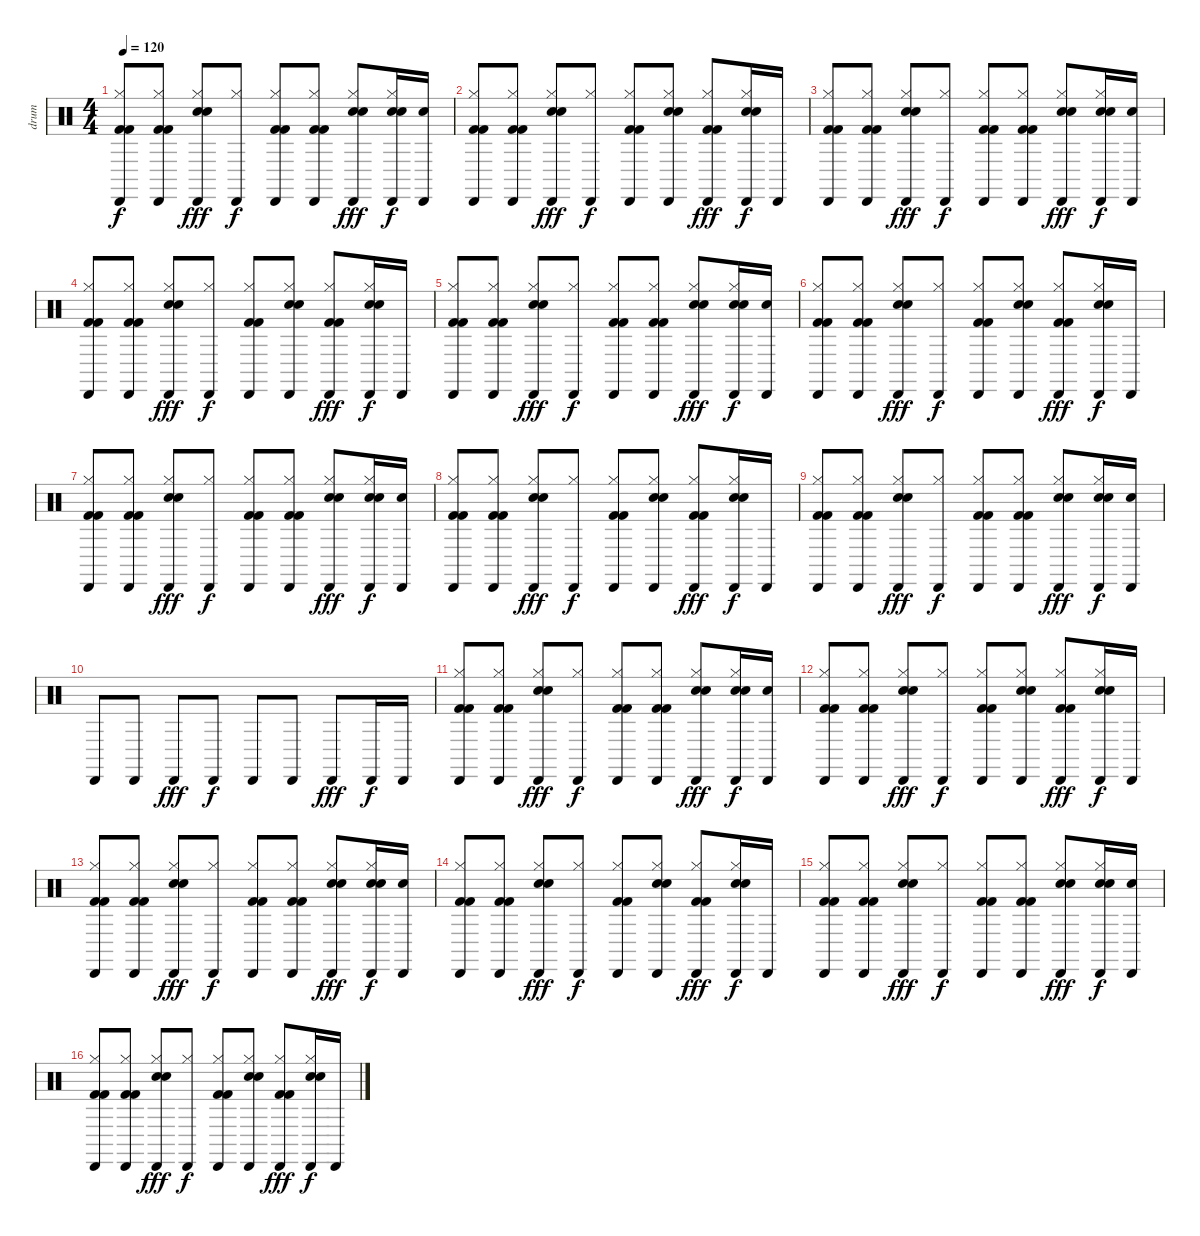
\track ("drum" "drum") {instrument percussion}
\staff {score}
\articulation defaults
\ts (4 4)
\tempo 120
\clef neutral
\ks c
("Cabasa (hit)" "Hi-Hat (closed)" "Kick (hit) 2" "Kick (hit) 2").8{dy f} ("Cabasa (hit)" "Hi-Hat (closed)" "Kick (hit) 2" "Kick (hit) 2").8 ("Cabasa (hit)" "Hi-Hat (closed)" "Snare (hit) 2" "Snare (hit) 2").8{dy fff} ("Cabasa (hit)" "Hi-Hat (closed)").8{dy f} ("Cabasa (hit)" "Hi-Hat (closed)" "Kick (hit) 2" "Kick (hit) 2").8 ("Cabasa (hit)" "Hi-Hat (closed)" "Kick (hit) 2" "Kick (hit) 2").8 ("Cabasa (hit)" "Hi-Hat (closed)" "Snare (hit) 2" "Snare (hit) 2").8{dy fff} ("Cabasa (hit)" "Hi-Hat (closed)" "Snare (hit) 2" "Snare (hit) 2").16{dy f} ("Cabasa (hit)" "Snare (hit) 2").16 |
("Cabasa (hit)" "Hi-Hat (closed)" "Kick (hit) 2" "Kick (hit) 2").8 ("Cabasa (hit)" "Hi-Hat (closed)" "Kick (hit) 2" "Kick (hit) 2").8 ("Cabasa (hit)" "Hi-Hat (closed)" "Snare (hit) 2" "Snare (hit) 2").8{dy fff} ("Cabasa (hit)" "Hi-Hat (closed)").8{dy f} ("Cabasa (hit)" "Hi-Hat (closed)" "Kick (hit) 2" "Kick (hit) 2").8 ("Cabasa (hit)" "Hi-Hat (closed)" "Snare (hit) 2" "Snare (hit) 2").8 ("Cabasa (hit)" "Hi-Hat (closed)" "Kick (hit) 2" "Kick (hit) 2").8{dy fff} ("Cabasa (hit)" "Hi-Hat (closed)" "Snare (hit) 2" "Snare (hit) 2").16{dy f} "Cabasa (hit)".16 |
("Cabasa (hit)" "Hi-Hat (closed)" "Kick (hit) 2" "Kick (hit) 2").8 ("Cabasa (hit)" "Hi-Hat (closed)" "Kick (hit) 2" "Kick (hit) 2").8 ("Cabasa (hit)" "Hi-Hat (closed)" "Snare (hit) 2" "Snare (hit) 2").8{dy fff} ("Cabasa (hit)" "Hi-Hat (closed)").8{dy f} ("Cabasa (hit)" "Hi-Hat (closed)" "Kick (hit) 2" "Kick (hit) 2").8 ("Cabasa (hit)" "Hi-Hat (closed)" "Kick (hit) 2" "Kick (hit) 2").8 ("Cabasa (hit)" "Hi-Hat (closed)" "Snare (hit) 2" "Snare (hit) 2").8{dy fff} ("Cabasa (hit)" "Hi-Hat (closed)" "Snare (hit) 2" "Snare (hit) 2").16{dy f} ("Cabasa (hit)" "Snare (hit) 2").16 |
("Cabasa (hit)" "Hi-Hat (closed)" "Kick (hit) 2" "Kick (hit) 2").8 ("Cabasa (hit)" "Hi-Hat (closed)" "Kick (hit) 2" "Kick (hit) 2").8 ("Cabasa (hit)" "Hi-Hat (closed)" "Snare (hit) 2" "Snare (hit) 2").8{dy fff} ("Cabasa (hit)" "Hi-Hat (closed)").8{dy f} ("Cabasa (hit)" "Hi-Hat (closed)" "Kick (hit) 2" "Kick (hit) 2").8 ("Cabasa (hit)" "Hi-Hat (closed)" "Snare (hit) 2" "Snare (hit) 2").8 ("Cabasa (hit)" "Hi-Hat (closed)" "Kick (hit) 2" "Kick (hit) 2").8{dy fff} ("Cabasa (hit)" "Hi-Hat (closed)" "Snare (hit) 2" "Snare (hit) 2").16{dy f} "Cabasa (hit)".16 |
("Cabasa (hit)" "Hi-Hat (closed)" "Kick (hit) 2" "Kick (hit) 2").8 ("Cabasa (hit)" "Hi-Hat (closed)" "Kick (hit) 2" "Kick (hit) 2").8 ("Cabasa (hit)" "Hi-Hat (closed)" "Snare (hit) 2" "Snare (hit) 2").8{dy fff} ("Cabasa (hit)" "Hi-Hat (closed)").8{dy f} ("Cabasa (hit)" "Hi-Hat (closed)" "Kick (hit) 2" "Kick (hit) 2").8 ("Cabasa (hit)" "Hi-Hat (closed)" "Kick (hit) 2" "Kick (hit) 2").8 ("Cabasa (hit)" "Hi-Hat (closed)" "Snare (hit) 2" "Snare (hit) 2").8{dy fff} ("Cabasa (hit)" "Hi-Hat (closed)" "Snare (hit) 2" "Snare (hit) 2").16{dy f} ("Cabasa (hit)" "Snare (hit) 2").16 |
("Cabasa (hit)" "Hi-Hat (closed)" "Kick (hit) 2" "Kick (hit) 2").8 ("Cabasa (hit)" "Hi-Hat (closed)" "Kick (hit) 2" "Kick (hit) 2").8 ("Cabasa (hit)" "Hi-Hat (closed)" "Snare (hit) 2" "Snare (hit) 2").8{dy fff} ("Cabasa (hit)" "Hi-Hat (closed)").8{dy f} ("Cabasa (hit)" "Hi-Hat (closed)" "Kick (hit) 2" "Kick (hit) 2").8 ("Cabasa (hit)" "Hi-Hat (closed)" "Snare (hit) 2" "Snare (hit) 2").8 ("Cabasa (hit)" "Hi-Hat (closed)" "Kick (hit) 2" "Kick (hit) 2").8{dy fff} ("Cabasa (hit)" "Hi-Hat (closed)" "Snare (hit) 2" "Snare (hit) 2").16{dy f} "Cabasa (hit)".16 |
("Cabasa (hit)" "Hi-Hat (closed)" "Kick (hit) 2" "Kick (hit) 2").8 ("Cabasa (hit)" "Hi-Hat (closed)" "Kick (hit) 2" "Kick (hit) 2").8 ("Cabasa (hit)" "Hi-Hat (closed)" "Snare (hit) 2" "Snare (hit) 2").8{dy fff} ("Cabasa (hit)" "Hi-Hat (closed)").8{dy f} ("Cabasa (hit)" "Hi-Hat (closed)" "Kick (hit) 2" "Kick (hit) 2").8 ("Cabasa (hit)" "Hi-Hat (closed)" "Kick (hit) 2" "Kick (hit) 2").8 ("Cabasa (hit)" "Hi-Hat (closed)" "Snare (hit) 2" "Snare (hit) 2").8{dy fff} ("Cabasa (hit)" "Hi-Hat (closed)" "Snare (hit) 2" "Snare (hit) 2").16{dy f} ("Cabasa (hit)" "Snare (hit) 2").16 |
("Cabasa (hit)" "Hi-Hat (closed)" "Kick (hit) 2" "Kick (hit) 2").8 ("Cabasa (hit)" "Hi-Hat (closed)" "Kick (hit) 2" "Kick (hit) 2").8 ("Cabasa (hit)" "Hi-Hat (closed)" "Snare (hit) 2" "Snare (hit) 2").8{dy fff} ("Cabasa (hit)" "Hi-Hat (closed)").8{dy f} ("Cabasa (hit)" "Hi-Hat (closed)" "Kick (hit) 2" "Kick (hit) 2").8 ("Cabasa (hit)" "Hi-Hat (closed)" "Snare (hit) 2" "Snare (hit) 2").8 ("Cabasa (hit)" "Hi-Hat (closed)" "Kick (hit) 2" "Kick (hit) 2").8{dy fff} ("Cabasa (hit)" "Hi-Hat (closed)" "Snare (hit) 2" "Snare (hit) 2").16{dy f} "Cabasa (hit)".16 |
("Cabasa (hit)" "Hi-Hat (closed)" "Kick (hit) 2" "Kick (hit) 2").8 ("Cabasa (hit)" "Hi-Hat (closed)" "Kick (hit) 2" "Kick (hit) 2").8 ("Cabasa (hit)" "Hi-Hat (closed)" "Snare (hit) 2" "Snare (hit) 2").8{dy fff} ("Cabasa (hit)" "Hi-Hat (closed)").8{dy f} ("Cabasa (hit)" "Hi-Hat (closed)" "Kick (hit) 2" "Kick (hit) 2").8 ("Cabasa (hit)" "Hi-Hat (closed)" "Kick (hit) 2" "Kick (hit) 2").8 ("Cabasa (hit)" "Hi-Hat (closed)" "Snare (hit) 2" "Snare (hit) 2").8{dy fff} ("Cabasa (hit)" "Hi-Hat (closed)" "Snare (hit) 2" "Snare (hit) 2").16{dy f} ("Cabasa (hit)" "Snare (hit) 2").16 |
"Cabasa (hit)".8 "Cabasa (hit)".8 "Cabasa (hit)".8{dy fff} "Cabasa (hit)".8{dy f} "Cabasa (hit)".8 "Cabasa (hit)".8 "Cabasa (hit)".8{dy fff} "Cabasa (hit)".16{dy f} "Cabasa (hit)".16 |
("Cabasa (hit)" "Hi-Hat (closed)" "Kick (hit) 2" "Kick (hit) 2").8 ("Cabasa (hit)" "Hi-Hat (closed)" "Kick (hit) 2" "Kick (hit) 2").8 ("Cabasa (hit)" "Hi-Hat (closed)" "Snare (hit) 2" "Snare (hit) 2").8{dy fff} ("Cabasa (hit)" "Hi-Hat (closed)").8{dy f} ("Cabasa (hit)" "Hi-Hat (closed)" "Kick (hit) 2" "Kick (hit) 2").8 ("Cabasa (hit)" "Hi-Hat (closed)" "Kick (hit) 2" "Kick (hit) 2").8 ("Cabasa (hit)" "Hi-Hat (closed)" "Snare (hit) 2" "Snare (hit) 2").8{dy fff} ("Cabasa (hit)" "Hi-Hat (closed)" "Snare (hit) 2" "Snare (hit) 2").16{dy f} ("Cabasa (hit)" "Snare (hit) 2").16 |
("Cabasa (hit)" "Hi-Hat (closed)" "Kick (hit) 2" "Kick (hit) 2").8 ("Cabasa (hit)" "Hi-Hat (closed)" "Kick (hit) 2" "Kick (hit) 2").8 ("Cabasa (hit)" "Hi-Hat (closed)" "Snare (hit) 2" "Snare (hit) 2").8{dy fff} ("Cabasa (hit)" "Hi-Hat (closed)").8{dy f} ("Cabasa (hit)" "Hi-Hat (closed)" "Kick (hit) 2" "Kick (hit) 2").8 ("Cabasa (hit)" "Hi-Hat (closed)" "Snare (hit) 2" "Snare (hit) 2").8 ("Cabasa (hit)" "Hi-Hat (closed)" "Kick (hit) 2" "Kick (hit) 2").8{dy fff} ("Cabasa (hit)" "Hi-Hat (closed)" "Snare (hit) 2" "Snare (hit) 2").16{dy f} "Cabasa (hit)".16 |
("Cabasa (hit)" "Hi-Hat (closed)" "Kick (hit) 2" "Kick (hit) 2").8 ("Cabasa (hit)" "Hi-Hat (closed)" "Kick (hit) 2" "Kick (hit) 2").8 ("Cabasa (hit)" "Hi-Hat (closed)" "Snare (hit) 2" "Snare (hit) 2").8{dy fff} ("Cabasa (hit)" "Hi-Hat (closed)").8{dy f} ("Cabasa (hit)" "Hi-Hat (closed)" "Kick (hit) 2" "Kick (hit) 2").8 ("Cabasa (hit)" "Hi-Hat (closed)" "Kick (hit) 2" "Kick (hit) 2").8 ("Cabasa (hit)" "Hi-Hat (closed)" "Snare (hit) 2" "Snare (hit) 2").8{dy fff} ("Cabasa (hit)" "Hi-Hat (closed)" "Snare (hit) 2" "Snare (hit) 2").16{dy f} ("Cabasa (hit)" "Snare (hit) 2").16 |
("Cabasa (hit)" "Hi-Hat (closed)" "Kick (hit) 2" "Kick (hit) 2").8 ("Cabasa (hit)" "Hi-Hat (closed)" "Kick (hit) 2" "Kick (hit) 2").8 ("Cabasa (hit)" "Hi-Hat (closed)" "Snare (hit) 2" "Snare (hit) 2").8{dy fff} ("Cabasa (hit)" "Hi-Hat (closed)").8{dy f} ("Cabasa (hit)" "Hi-Hat (closed)" "Kick (hit) 2" "Kick (hit) 2").8 ("Cabasa (hit)" "Hi-Hat (closed)" "Snare (hit) 2" "Snare (hit) 2").8 ("Cabasa (hit)" "Hi-Hat (closed)" "Kick (hit) 2" "Kick (hit) 2").8{dy fff} ("Cabasa (hit)" "Hi-Hat (closed)" "Snare (hit) 2" "Snare (hit) 2").16{dy f} "Cabasa (hit)".16 |
("Cabasa (hit)" "Hi-Hat (closed)" "Kick (hit) 2" "Kick (hit) 2").8 ("Cabasa (hit)" "Hi-Hat (closed)" "Kick (hit) 2" "Kick (hit) 2").8 ("Cabasa (hit)" "Hi-Hat (closed)" "Snare (hit) 2" "Snare (hit) 2").8{dy fff} ("Cabasa (hit)" "Hi-Hat (closed)").8{dy f} ("Cabasa (hit)" "Hi-Hat (closed)" "Kick (hit) 2" "Kick (hit) 2").8 ("Cabasa (hit)" "Hi-Hat (closed)" "Kick (hit) 2" "Kick (hit) 2").8 ("Cabasa (hit)" "Hi-Hat (closed)" "Snare (hit) 2" "Snare (hit) 2").8{dy fff} ("Cabasa (hit)" "Hi-Hat (closed)" "Snare (hit) 2" "Snare (hit) 2").16{dy f} ("Cabasa (hit)" "Snare (hit) 2").16 |
("Cabasa (hit)" "Hi-Hat (closed)" "Kick (hit) 2" "Kick (hit) 2").8 ("Cabasa (hit)" "Hi-Hat (closed)" "Kick (hit) 2" "Kick (hit) 2").8 ("Cabasa (hit)" "Hi-Hat (closed)" "Snare (hit) 2" "Snare (hit) 2").8{dy fff} ("Cabasa (hit)" "Hi-Hat (closed)").8{dy f} ("Cabasa (hit)" "Hi-Hat (closed)" "Kick (hit) 2" "Kick (hit) 2").8 ("Cabasa (hit)" "Hi-Hat (closed)" "Snare (hit) 2" "Snare (hit) 2").8 ("Cabasa (hit)" "Hi-Hat (closed)" "Kick (hit) 2" "Kick (hit) 2").8{dy fff} ("Cabasa (hit)" "Hi-Hat (closed)" "Snare (hit) 2" "Snare (hit) 2").16{dy f} "Cabasa (hit)".16
